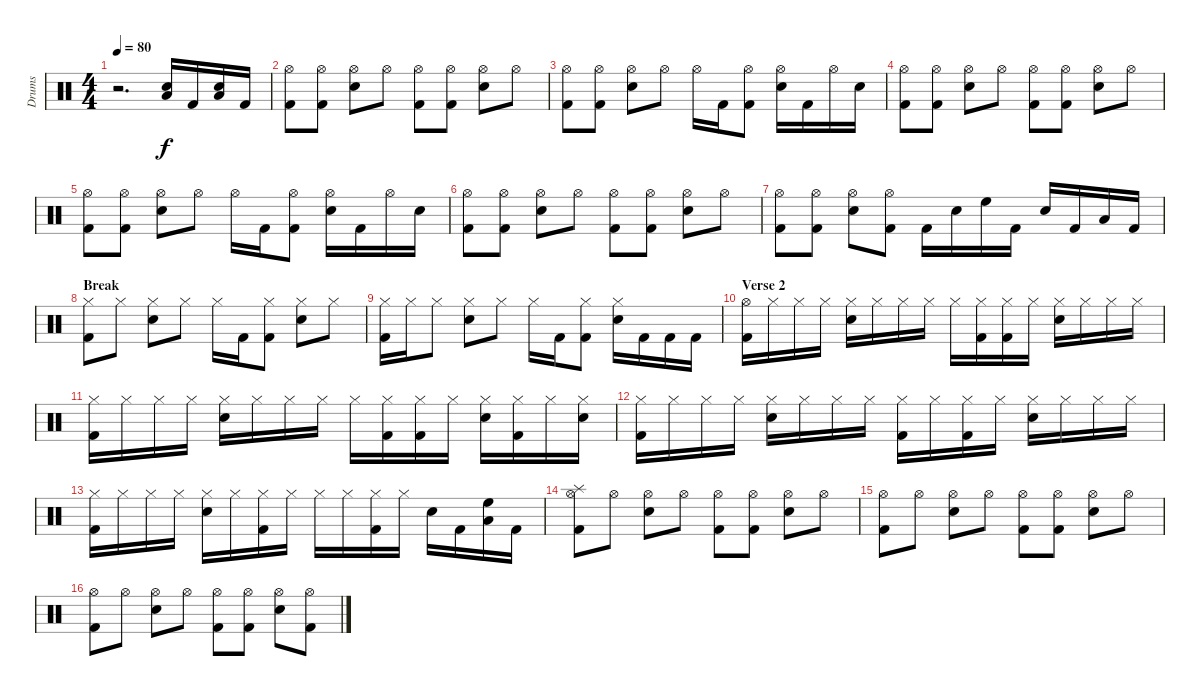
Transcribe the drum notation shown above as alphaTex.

\track ("Drums" "Drums") {instrument percussion}
\staff {score}
\articulation defaults
\ts (4 4)
\tempo 80
\clef neutral
\ks c
r.2{d dy f} ("Snare (hit) 2" "Low Tom (hit)").16 "Kick (hit) 2".16 ("Snare (hit) 2" "Low Tom (hit)").16 "Kick (hit) 2".16 |
("Hi-Hat (open)" "Kick (hit) 2").8 ("Hi-Hat (open)" "Kick (hit) 2").8 ("Hi-Hat (open)" "Snare (hit) 2").8 "Hi-Hat (open)".8 ("Hi-Hat (open)" "Kick (hit) 2").8 ("Hi-Hat (open)" "Kick (hit) 2").8 ("Hi-Hat (open)" "Snare (hit) 2").8 "Hi-Hat (open)".8 |
("Hi-Hat (open)" "Kick (hit) 2").8 ("Hi-Hat (open)" "Kick (hit) 2").8 ("Hi-Hat (open)" "Snare (hit) 2").8 "Hi-Hat (open)".8 "Hi-Hat (open)".16 "Kick (hit) 2".16 ("Hi-Hat (open)" "Kick (hit) 2").8 ("Hi-Hat (open)" "Snare (hit) 2").16 "Kick (hit) 2".16 "Hi-Hat (open)".16 "Snare (hit) 2".16 |
("Hi-Hat (open)" "Kick (hit) 2").8 ("Hi-Hat (open)" "Kick (hit) 2").8 ("Hi-Hat (open)" "Snare (hit) 2").8 "Hi-Hat (open)".8 ("Hi-Hat (open)" "Kick (hit) 2").8 ("Hi-Hat (open)" "Kick (hit) 2").8 ("Hi-Hat (open)" "Snare (hit) 2").8 "Hi-Hat (open)".8 |
("Hi-Hat (open)" "Kick (hit) 2").8 ("Hi-Hat (open)" "Kick (hit) 2").8 ("Hi-Hat (open)" "Snare (hit) 2").8 "Hi-Hat (open)".8 "Hi-Hat (open)".16 "Kick (hit) 2".16 ("Hi-Hat (open)" "Kick (hit) 2").8 ("Hi-Hat (open)" "Snare (hit) 2").16 "Kick (hit) 2".16 "Hi-Hat (open)".16 "Snare (hit) 2".16 |
("Hi-Hat (open)" "Kick (hit) 2").8 ("Hi-Hat (open)" "Kick (hit) 2").8 ("Hi-Hat (open)" "Snare (hit) 2").8 "Hi-Hat (open)".8 ("Hi-Hat (open)" "Kick (hit) 2").8 ("Hi-Hat (open)" "Kick (hit) 2").8 ("Hi-Hat (open)" "Snare (hit) 2").8 "Hi-Hat (open)".8 |
("Hi-Hat (open)" "Kick (hit) 2").8 ("Hi-Hat (open)" "Kick (hit) 2").8 ("Hi-Hat (open)" "Snare (hit) 2").8 ("Hi-Hat (open)" "Kick (hit) 2").8 "Kick (hit) 2".16 "Snare (hit) 2".16 "High Floor Tom (hit)".16 "Kick (hit) 2".16 "Snare (hit) 2".16 "Kick (hit) 2".16 "Low Tom (hit)".16 "Kick (hit) 2".16 |
\section ("" "Break")
("Kick (hit) 2" "Hi-Hat (closed)").8 "Hi-Hat (closed)".8 ("Snare (hit) 2" "Hi-Hat (closed)").8 "Hi-Hat (closed)".8 "Hi-Hat (closed)".16 "Kick (hit) 2".16 ("Hi-Hat (closed)" "Kick (hit) 2").8 ("Hi-Hat (closed)" "Snare (hit) 2").8 "Hi-Hat (closed)".8 |
("Kick (hit) 2" "Hi-Hat (closed)").16 "Hi-Hat (closed)".16 "Hi-Hat (closed)".8 ("Snare (hit) 2" "Hi-Hat (closed)").8 "Hi-Hat (closed)".8 "Hi-Hat (closed)".16 "Kick (hit) 2".16 ("Hi-Hat (closed)" "Kick (hit) 2").8 ("Hi-Hat (closed)" "Snare (hit) 2").16 "Kick (hit) 2".16 "Kick (hit) 2".16 "Kick (hit) 2".16 |
\section ("" "Verse 2")
("Kick (hit) 2" "Hi-Hat (open)").16 "Hi-Hat (closed)".16 "Hi-Hat (closed)".16 "Hi-Hat (closed)".16 ("Snare (hit) 2" "Hi-Hat (closed)").16 "Hi-Hat (closed)".16 "Hi-Hat (closed)".16 "Hi-Hat (closed)".16 "Hi-Hat (closed)".16 ("Hi-Hat (closed)" "Kick (hit) 2").16 ("Hi-Hat (closed)" "Kick (hit) 2").16 "Hi-Hat (closed)".16 ("Hi-Hat (closed)" "Snare (hit) 2").16 "Hi-Hat (closed)".16 "Hi-Hat (closed)".16 "Hi-Hat (closed)".16 |
("Kick (hit) 2" "Hi-Hat (closed)").16 "Hi-Hat (closed)".16 "Hi-Hat (closed)".16 "Hi-Hat (closed)".16 ("Snare (hit) 2" "Hi-Hat (closed)").16 "Hi-Hat (closed)".16 "Hi-Hat (closed)".16 "Hi-Hat (closed)".16 "Hi-Hat (closed)".16 ("Hi-Hat (closed)" "Kick (hit) 2").16 ("Hi-Hat (closed)" "Kick (hit) 2").16 "Hi-Hat (closed)".16 ("Hi-Hat (closed)" "Snare (hit) 2").16 ("Hi-Hat (closed)" "Kick (hit) 2").16 "Hi-Hat (closed)".16 ("Hi-Hat (closed)" "Snare (hit) 2").16 |
("Kick (hit) 2" "Hi-Hat (closed)").16 "Hi-Hat (closed)".16 "Hi-Hat (closed)".16 "Hi-Hat (closed)".16 ("Snare (hit) 2" "Hi-Hat (closed)").16 "Hi-Hat (closed)".16 "Hi-Hat (closed)".16 "Hi-Hat (closed)".16 ("Kick (hit) 2" "Hi-Hat (closed)").16 "Hi-Hat (closed)".16 ("Kick (hit) 2" "Hi-Hat (closed)").16 "Hi-Hat (closed)".16 ("Snare (hit) 2" "Hi-Hat (closed)").16 "Hi-Hat (closed)".16 "Hi-Hat (closed)".16 "Hi-Hat (closed)".16 |
("Hi-Hat (closed)" "Kick (hit) 2").16 "Hi-Hat (closed)".16 "Hi-Hat (closed)".16 "Hi-Hat (closed)".16 ("Hi-Hat (closed)" "Snare (hit) 2").16 "Hi-Hat (closed)".16 ("Hi-Hat (closed)" "Kick (hit) 2").16 "Hi-Hat (closed)".16 "Hi-Hat (closed)".16 "Hi-Hat (closed)".16 ("Hi-Hat (closed)" "Kick (hit) 2").16 "Hi-Hat (closed)".16 "Snare (hit) 2".16 "Kick (hit) 2".16 ("Low Tom (hit)" "High Floor Tom (hit)").16 "Kick (hit) 2".16 |
("Hi-Hat (open)" "Kick (hit) 2" "Splash (hit)").8 "Hi-Hat (open)".8 ("Hi-Hat (open)" "Snare (hit) 2").8 "Hi-Hat (open)".8 ("Hi-Hat (open)" "Kick (hit) 2").8 ("Hi-Hat (open)" "Kick (hit) 2").8 ("Hi-Hat (open)" "Snare (hit) 2").8 "Hi-Hat (open)".8 |
("Hi-Hat (open)" "Kick (hit) 2").8 "Hi-Hat (open)".8 ("Hi-Hat (open)" "Snare (hit) 2").8 "Hi-Hat (open)".8 ("Hi-Hat (open)" "Kick (hit) 2").8 ("Hi-Hat (open)" "Kick (hit) 2").8 ("Hi-Hat (open)" "Snare (hit) 2").8 "Hi-Hat (open)".8 |
("Hi-Hat (open)" "Kick (hit) 2").8 "Hi-Hat (open)".8 ("Hi-Hat (open)" "Snare (hit) 2").8 "Hi-Hat (open)".8 ("Hi-Hat (open)" "Kick (hit) 2").8 ("Hi-Hat (open)" "Kick (hit) 2").8 ("Hi-Hat (open)" "Snare (hit) 2").8 ("Hi-Hat (open)" "Kick (hit) 2").8
